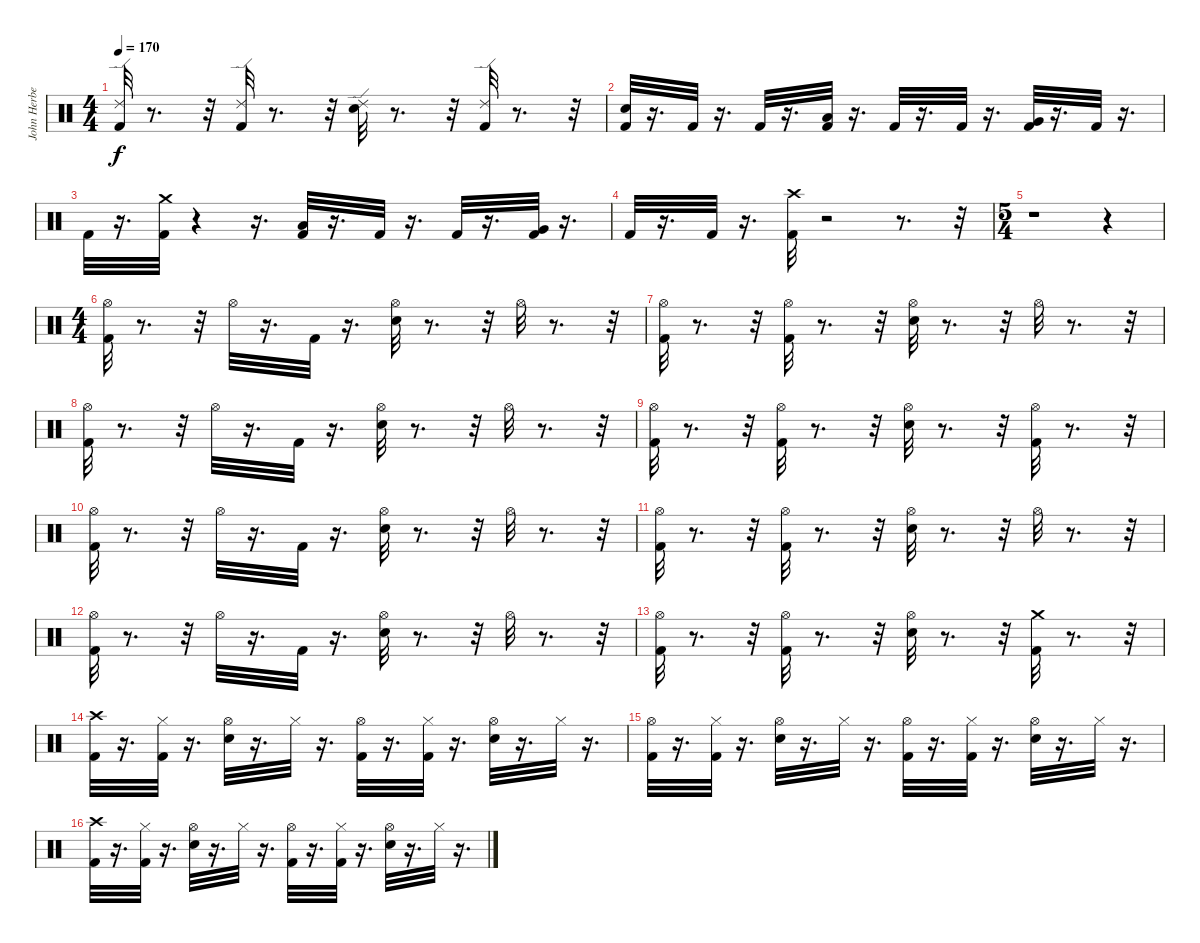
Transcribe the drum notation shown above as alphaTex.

\track ("John Herbert" "John Herbe") {instrument percussion}
\staff {score}
\articulation defaults
\ts (4 4)
\tempo 170
\clef neutral
\ks c
("Ride (edge) 2" "Kick (hit) 2").32{dy f} r.8{d} r.32 ("Ride (edge) 2" "Kick (hit) 2").32 r.8{d} r.32 ("Ride (edge) 2" "Snare (hit) 2").32 r.8{d} r.32 ("Kick (hit) 2" "Ride (edge) 2").32 r.8{d} r.32 |
("Snare (hit) 2" "Kick (hit) 2").32 r.16{d} "Kick (hit) 2".32 r.16{d} "Kick (hit) 2".32 r.16{d} ("Low Tom (hit)" "Kick (hit) 2").32 r.16{d} "Kick (hit) 2".32 r.16{d} "Kick (hit) 2".32 r.16{d} ("Very Low Tom (hit)" "Kick (hit) 2").32 r.16{d} "Kick (hit) 2".32 r.16{d} |
"Kick (hit) 2".32 r.16{d} ("Crash medium (hit)" "Kick (hit) 2").32 r.4 r.16{d} ("Low Tom (hit)" "Kick (hit) 2").32 r.16{d} "Kick (hit) 2".32 r.16{d} "Kick (hit) 2".32 r.16{d} ("Very Low Tom (hit)" "Kick (hit) 2").32 r.16{d} |
"Kick (hit) 2".32 r.16{d} "Kick (hit) 2".32 r.16{d} ("Crash high (hit)" "Kick (hit) 2").32 r.2 r.8{d} r.32 |
\ts (5 4)
r.1 r.4 |
\ts (4 4)
("Hi-Hat (open)" "Kick (hit) 2").32 r.8{d} r.32 "Hi-Hat (open)".32 r.16{d} "Kick (hit) 2".32 r.16{d} ("Hi-Hat (open)" "Snare (hit) 2").32 r.8{d} r.32 "Hi-Hat (open)".32 r.8{d} r.32 |
("Hi-Hat (open)" "Kick (hit) 2").32 r.8{d} r.32 ("Hi-Hat (open)" "Kick (hit) 2").32 r.8{d} r.32 ("Hi-Hat (open)" "Snare (hit) 2").32 r.8{d} r.32 "Hi-Hat (open)".32 r.8{d} r.32 |
("Hi-Hat (open)" "Kick (hit) 2").32 r.8{d} r.32 "Hi-Hat (open)".32 r.16{d} "Kick (hit) 2".32 r.16{d} ("Hi-Hat (open)" "Snare (hit) 2").32 r.8{d} r.32 "Hi-Hat (open)".32 r.8{d} r.32 |
("Hi-Hat (open)" "Kick (hit) 2").32 r.8{d} r.32 ("Hi-Hat (open)" "Kick (hit) 2").32 r.8{d} r.32 ("Hi-Hat (open)" "Snare (hit) 2").32 r.8{d} r.32 ("Kick (hit) 2" "Hi-Hat (open)").32 r.8{d} r.32 |
("Hi-Hat (open)" "Kick (hit) 2").32 r.8{d} r.32 "Hi-Hat (open)".32 r.16{d} "Kick (hit) 2".32 r.16{d} ("Hi-Hat (open)" "Snare (hit) 2").32 r.8{d} r.32 "Hi-Hat (open)".32 r.8{d} r.32 |
("Hi-Hat (open)" "Kick (hit) 2").32 r.8{d} r.32 ("Hi-Hat (open)" "Kick (hit) 2").32 r.8{d} r.32 ("Hi-Hat (open)" "Snare (hit) 2").32 r.8{d} r.32 "Hi-Hat (open)".32 r.8{d} r.32 |
("Hi-Hat (open)" "Kick (hit) 2").32 r.8{d} r.32 "Hi-Hat (open)".32 r.16{d} "Kick (hit) 2".32 r.16{d} ("Hi-Hat (open)" "Snare (hit) 2").32 r.8{d} r.32 "Hi-Hat (open)".32 r.8{d} r.32 |
("Hi-Hat (open)" "Kick (hit) 2").32 r.8{d} r.32 ("Hi-Hat (open)" "Kick (hit) 2").32 r.8{d} r.32 ("Hi-Hat (open)" "Snare (hit) 2").32 r.8{d} r.32 ("Kick (hit) 2" "Crash medium (hit)").32 r.8{d} r.32 |
("Crash high (hit)" "Kick (hit) 2").32 r.16{d} ("Hi-Hat (closed)" "Kick (hit) 2").32 r.16{d} ("Hi-Hat (open)" "Snare (hit) 2").32 r.16{d} "Hi-Hat (closed)".32 r.16{d} ("Hi-Hat (open)" "Kick (hit) 2").32 r.16{d} ("Hi-Hat (closed)" "Kick (hit) 2").32 r.16{d} ("Hi-Hat (open)" "Snare (hit) 2").32 r.16{d} "Hi-Hat (closed)".32 r.16{d} |
("Hi-Hat (open)" "Kick (hit) 2").32 r.16{d} ("Hi-Hat (closed)" "Kick (hit) 2").32 r.16{d} ("Hi-Hat (open)" "Snare (hit) 2").32 r.16{d} "Hi-Hat (closed)".32 r.16{d} ("Hi-Hat (open)" "Kick (hit) 2").32 r.16{d} ("Hi-Hat (closed)" "Kick (hit) 2").32 r.16{d} ("Hi-Hat (open)" "Snare (hit) 2").32 r.16{d} "Hi-Hat (closed)".32 r.16{d} |
("Crash high (hit)" "Kick (hit) 2").32 r.16{d} ("Hi-Hat (closed)" "Kick (hit) 2").32 r.16{d} ("Hi-Hat (open)" "Snare (hit) 2").32 r.16{d} "Hi-Hat (closed)".32 r.16{d} ("Hi-Hat (open)" "Kick (hit) 2").32 r.16{d} ("Hi-Hat (closed)" "Kick (hit) 2").32 r.16{d} ("Hi-Hat (open)" "Snare (hit) 2").32 r.16{d} "Hi-Hat (closed)".32 r.16{d}
